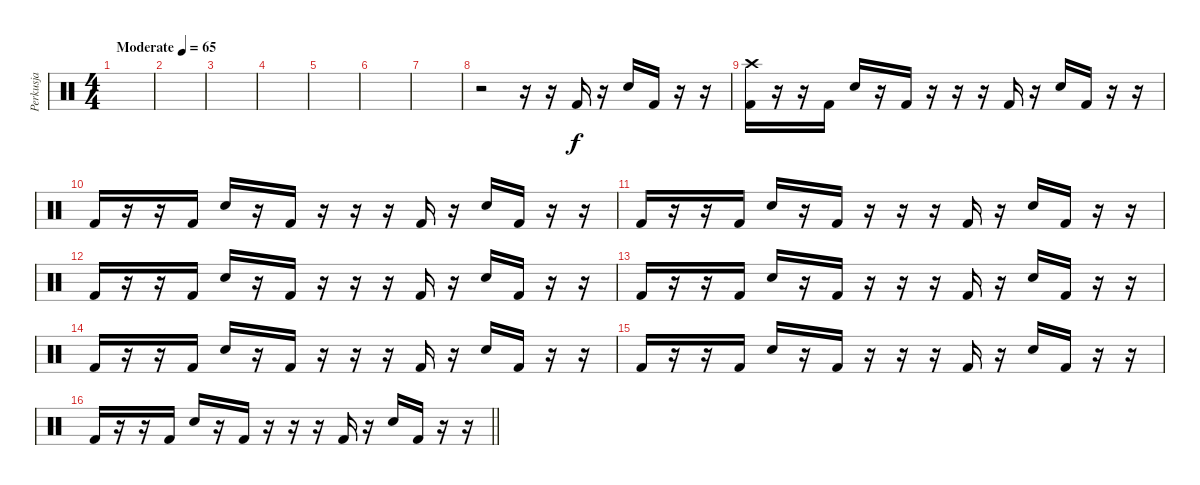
\track ("Perkusja" "Perkusja") {instrument percussion}
\staff {score}
\articulation defaults
\ts (4 4)
\tempo (65 "Moderate")
\clef neutral
\ks c
|
|
|
|
|
|
|
r.2 r.16 r.16 "Kick (hit) 2".16 r.16 "Snare (hit) 2".16 "Kick (hit) 2".16 r.16 r.16 |
("Crash high (hit)" "Kick (hit) 2").16 r.16 r.16 "Kick (hit) 2".16 "Snare (hit) 2".16 r.16 "Kick (hit) 2".16 r.16 r.16 r.16 "Kick (hit) 2".16 r.16 "Snare (hit) 2".16 "Kick (hit) 2".16 r.16 r.16 |
"Kick (hit) 2".16 r.16 r.16 "Kick (hit) 2".16 "Snare (hit) 2".16 r.16 "Kick (hit) 2".16 r.16 r.16 r.16 "Kick (hit) 2".16 r.16 "Snare (hit) 2".16 "Kick (hit) 2".16 r.16 r.16 |
"Kick (hit) 2".16 r.16 r.16 "Kick (hit) 2".16 "Snare (hit) 2".16 r.16 "Kick (hit) 2".16 r.16 r.16 r.16 "Kick (hit) 2".16 r.16 "Snare (hit) 2".16 "Kick (hit) 2".16 r.16 r.16 |
"Kick (hit) 2".16 r.16 r.16 "Kick (hit) 2".16 "Snare (hit) 2".16 r.16 "Kick (hit) 2".16 r.16 r.16 r.16 "Kick (hit) 2".16 r.16 "Snare (hit) 2".16 "Kick (hit) 2".16 r.16 r.16 |
"Kick (hit) 2".16 r.16 r.16 "Kick (hit) 2".16 "Snare (hit) 2".16 r.16 "Kick (hit) 2".16 r.16 r.16 r.16 "Kick (hit) 2".16 r.16 "Snare (hit) 2".16 "Kick (hit) 2".16 r.16 r.16 |
"Kick (hit) 2".16 r.16 r.16 "Kick (hit) 2".16 "Snare (hit) 2".16 r.16 "Kick (hit) 2".16 r.16 r.16 r.16 "Kick (hit) 2".16 r.16 "Snare (hit) 2".16 "Kick (hit) 2".16 r.16 r.16 |
"Kick (hit) 2".16 r.16 r.16 "Kick (hit) 2".16 "Snare (hit) 2".16 r.16 "Kick (hit) 2".16 r.16 r.16 r.16 "Kick (hit) 2".16 r.16 "Snare (hit) 2".16 "Kick (hit) 2".16 r.16 r.16 |
\barLineRight lightlight "Kick (hit) 2".16
r.16 r.16 "Kick (hit) 2".16 "Snare (hit) 2".16 r.16 "Kick (hit) 2".16 r.16 r.16 r.16 "Kick (hit) 2".16 r.16 "Snare (hit) 2".16 "Kick (hit) 2".16 r.16 r.16
